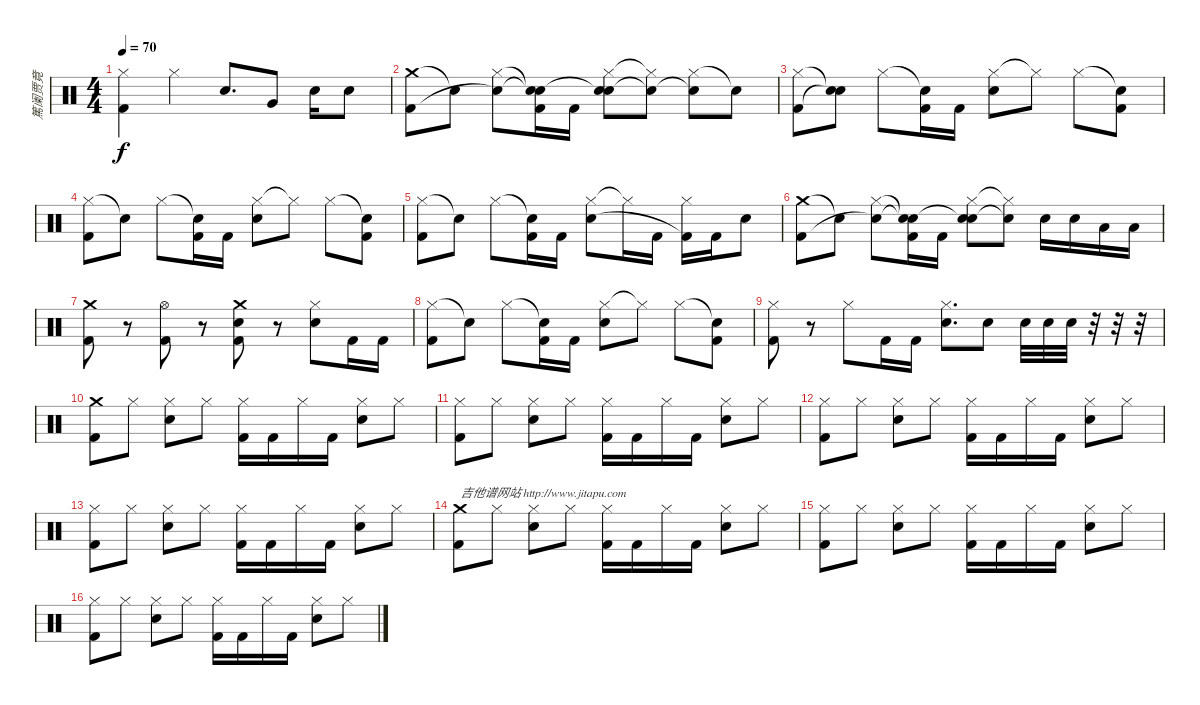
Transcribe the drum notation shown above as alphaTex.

\track ("篤阑贾竟" "篤阑贾竟") {instrument percussion}
\staff {score}
\articulation defaults
\ts (4 4)
\tempo 70
\clef neutral
\ks c
("Hi-Hat (closed)" "Kick (hit) 2").4{dy f} "Hi-Hat (closed)".4 "Snare (hit) 2".8{d} "Very Low Tom (hit)".8 "Snare (hit) 2".16 "Snare (hit) 2".8 |
("Crash medium (hit)" "Kick (hit) 2").8 "Snare (hit)"{t}.8 ("Hi-Hat (closed)" "Snare (hit)"{t}).8 ("Snare (hit)"{t} "Snare (hit)"{t} "Kick (hit) 2").16 "Kick (hit) 2".16 ("Hi-Hat (closed)" "Snare (hit)"{t} "Snare (hit) 2").8 ("Hi-Hat (closed)"{t} "Snare (hit)"{t}).8 ("Hi-Hat (closed)" "Snare (hit)"{t}).8 "Snare (hit)"{t}.8 |
("Hi-Hat (closed)" "Kick (hit) 2").8 ("Snare (hit)"{t} "Snare (hit)"{t}).8 "Hi-Hat (closed)".8 ("Snare (hit)"{t} "Kick (hit) 2").16 "Kick (hit) 2".16 ("Hi-Hat (closed)" "Snare (hit) 2").8 "Hi-Hat (closed)"{t}.8 "Hi-Hat (closed)".8 ("Snare (hit)"{t} "Kick (hit) 2").8 |
("Hi-Hat (closed)" "Kick (hit) 2").8 "Snare (hit)"{t}.8 "Hi-Hat (closed)".8 ("Snare (hit)"{t} "Kick (hit) 2").16 "Kick (hit) 2".16 ("Hi-Hat (closed)" "Snare (hit) 2").8 "Hi-Hat (closed)"{t}.8 "Hi-Hat (closed)".8 ("Snare (hit)"{t} "Kick (hit) 2").8 |
("Hi-Hat (closed)" "Kick (hit) 2").8 "Snare (hit)"{t}.8 "Hi-Hat (closed)".8 ("Snare (hit)"{t} "Kick (hit) 2").16 "Kick (hit) 2".16 ("Hi-Hat (closed)" "Snare (hit) 2").8 "Hi-Hat (closed)"{t}.16 "Kick (hit) 2".16 ("Hi-Hat (closed)" "Kick (hit) 2"{t}).16 "Kick (hit) 2".16 "Snare (hit) 2".8 |
("Crash medium (hit)" "Kick (hit) 2").8 "Snare (hit)"{t}.8 ("Hi-Hat (closed)" "Snare (hit)"{t}).8 ("Snare (hit)"{t} "Snare (hit)"{t} "Kick (hit) 2").16 "Kick (hit) 2".16 ("Hi-Hat (closed)" "Snare (hit)"{t} "Snare (hit) 2").8 ("Hi-Hat (closed)"{t} "Snare (hit)"{t}).8 "Snare (hit) 2".16 "Snare (hit) 2".16 "Low Floor Tom (hit)".16 "Low Floor Tom (hit)".16 |
("Crash medium (hit)" "Kick (hit) 2").8 r.8 ("Hi-Hat (open)" "Kick (hit) 2").8 r.8 ("Crash medium (hit)" "Snare (hit) 2" "Kick (hit) 2").8 r.8 ("Hi-Hat (closed)" "Snare (hit) 2").8 "Kick (hit) 2".16 "Kick (hit) 2".16 |
("Hi-Hat (closed)" "Kick (hit) 2").8 "Snare (hit)"{t}.8 "Hi-Hat (closed)".8 ("Snare (hit)"{t} "Kick (hit) 2").16 "Kick (hit) 2".16 ("Hi-Hat (closed)" "Snare (hit) 2").8 "Hi-Hat (closed)"{t}.8 "Hi-Hat (closed)".8 ("Snare (hit)"{t} "Kick (hit) 2").8 |
("Hi-Hat (closed)" "Kick (hit) 2").8 r.8 "Hi-Hat (closed)".8 "Kick (hit) 2".16 "Kick (hit) 2".16 ("Hi-Hat (closed)" "Snare (hit) 2").8{d} "Snare (hit) 2".8 "Snare (hit) 2".32 "Snare (hit) 2".32 "Snare (hit) 2".32 r.32 r.32 r.32 |
("Crash medium (hit)" "Kick (hit) 2").8 "Hi-Hat (closed)".8 ("Hi-Hat (closed)" "Snare (hit) 2").8 "Hi-Hat (closed)".8 ("Hi-Hat (closed)" "Kick (hit) 2").16 "Kick (hit) 2".16 "Hi-Hat (closed)".16 "Kick (hit) 2".16 ("Hi-Hat (closed)" "Snare (hit) 2").8 "Hi-Hat (closed)".8 |
("Hi-Hat (closed)" "Kick (hit) 2").8 "Hi-Hat (closed)".8 ("Hi-Hat (closed)" "Snare (hit) 2").8 "Hi-Hat (closed)".8 ("Hi-Hat (closed)" "Kick (hit) 2").16 "Kick (hit) 2".16 "Hi-Hat (closed)".16 "Kick (hit) 2".16 ("Hi-Hat (closed)" "Snare (hit) 2").8 "Hi-Hat (closed)".8 |
("Hi-Hat (closed)" "Kick (hit) 2").8 "Hi-Hat (closed)".8 ("Hi-Hat (closed)" "Snare (hit) 2").8 "Hi-Hat (closed)".8 ("Hi-Hat (closed)" "Kick (hit) 2").16 "Kick (hit) 2".16 "Hi-Hat (closed)".16 "Kick (hit) 2".16 ("Hi-Hat (closed)" "Snare (hit) 2").8 "Hi-Hat (closed)".8 |
("Hi-Hat (closed)" "Kick (hit) 2").8 "Hi-Hat (closed)".8 ("Hi-Hat (closed)" "Snare (hit) 2").8 "Hi-Hat (closed)".8 ("Hi-Hat (closed)" "Kick (hit) 2").16 "Kick (hit) 2".16 "Hi-Hat (closed)".16 "Kick (hit) 2".16 ("Hi-Hat (closed)" "Snare (hit) 2").8 "Hi-Hat (closed)".8 |
("Crash medium (hit)" "Kick (hit) 2").8{txt "吉他谱网站 http://www.jitapu.com"} "Hi-Hat (closed)".8 ("Hi-Hat (closed)" "Snare (hit) 2").8 "Hi-Hat (closed)".8 ("Hi-Hat (closed)" "Kick (hit) 2").16 "Kick (hit) 2".16 "Hi-Hat (closed)".16 "Kick (hit) 2".16 ("Hi-Hat (closed)" "Snare (hit) 2").8 "Hi-Hat (closed)".8 |
("Hi-Hat (closed)" "Kick (hit) 2").8 "Hi-Hat (closed)".8 ("Hi-Hat (closed)" "Snare (hit) 2").8 "Hi-Hat (closed)".8 ("Hi-Hat (closed)" "Kick (hit) 2").16 "Kick (hit) 2".16 "Hi-Hat (closed)".16 "Kick (hit) 2".16 ("Hi-Hat (closed)" "Snare (hit) 2").8 "Hi-Hat (closed)".8 |
("Hi-Hat (closed)" "Kick (hit) 2").8 "Hi-Hat (closed)".8 ("Hi-Hat (closed)" "Snare (hit) 2").8 "Hi-Hat (closed)".8 ("Hi-Hat (closed)" "Kick (hit) 2").16 "Kick (hit) 2".16 "Hi-Hat (closed)".16 "Kick (hit) 2".16 ("Hi-Hat (closed)" "Snare (hit) 2").8 "Hi-Hat (closed)".8
